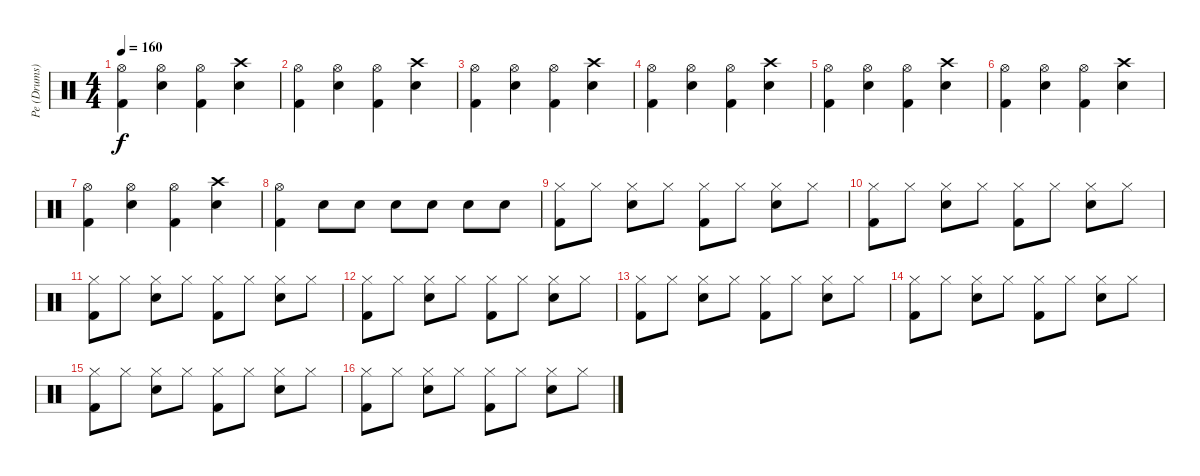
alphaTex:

\track ("Pe (Drums)" "Pe (Drums)") {instrument percussion}
\staff {score}
\articulation defaults
\ts (4 4)
\tempo 160
\clef neutral
\ks c
("Hi-Hat (open)" "Kick (hit) 2").4{dy f} ("Hi-Hat (open)" "Snare (hit) 2").4 ("Hi-Hat (open)" "Kick (hit) 2").4 ("Crash high (hit)" "Snare (hit) 2").4 |
("Hi-Hat (open)" "Kick (hit) 2").4 ("Hi-Hat (open)" "Snare (hit) 2").4 ("Hi-Hat (open)" "Kick (hit) 2").4 ("Crash high (hit)" "Snare (hit) 2").4 |
("Hi-Hat (open)" "Kick (hit) 2").4 ("Hi-Hat (open)" "Snare (hit) 2").4 ("Hi-Hat (open)" "Kick (hit) 2").4 ("Crash high (hit)" "Snare (hit) 2").4 |
("Hi-Hat (open)" "Kick (hit) 2").4 ("Hi-Hat (open)" "Snare (hit) 2").4 ("Hi-Hat (open)" "Kick (hit) 2").4 ("Crash high (hit)" "Snare (hit) 2").4 |
("Hi-Hat (open)" "Kick (hit) 2").4 ("Hi-Hat (open)" "Snare (hit) 2").4 ("Hi-Hat (open)" "Kick (hit) 2").4 ("Crash high (hit)" "Snare (hit) 2").4 |
("Hi-Hat (open)" "Kick (hit) 2").4 ("Hi-Hat (open)" "Snare (hit) 2").4 ("Hi-Hat (open)" "Kick (hit) 2").4 ("Crash high (hit)" "Snare (hit) 2").4 |
("Hi-Hat (open)" "Kick (hit) 2").4 ("Hi-Hat (open)" "Snare (hit) 2").4 ("Hi-Hat (open)" "Kick (hit) 2").4 ("Crash high (hit)" "Snare (hit) 2").4 |
("Hi-Hat (open)" "Kick (hit) 2").4 "Snare (hit) 2".8 "Snare (hit) 2".8 "Snare (hit) 2".8 "Snare (hit) 2".8 "Snare (hit) 2".8 "Snare (hit) 2".8 |
("Hi-Hat (closed)" "Kick (hit) 2").8 "Hi-Hat (closed)".8 ("Hi-Hat (closed)" "Snare (hit) 2").8 "Hi-Hat (closed)".8 ("Hi-Hat (closed)" "Kick (hit) 2").8 "Hi-Hat (closed)".8 ("Hi-Hat (closed)" "Snare (hit) 2").8 "Hi-Hat (closed)".8 |
("Hi-Hat (closed)" "Kick (hit) 2").8 "Hi-Hat (closed)".8 ("Hi-Hat (closed)" "Snare (hit) 2").8 "Hi-Hat (closed)".8 ("Hi-Hat (closed)" "Kick (hit) 2").8 "Hi-Hat (closed)".8 ("Hi-Hat (closed)" "Snare (hit) 2").8 "Hi-Hat (closed)".8 |
("Hi-Hat (closed)" "Kick (hit) 2").8 "Hi-Hat (closed)".8 ("Hi-Hat (closed)" "Snare (hit) 2").8 "Hi-Hat (closed)".8 ("Hi-Hat (closed)" "Kick (hit) 2").8 "Hi-Hat (closed)".8 ("Hi-Hat (closed)" "Snare (hit) 2").8 "Hi-Hat (closed)".8 |
("Hi-Hat (closed)" "Kick (hit) 2").8 "Hi-Hat (closed)".8 ("Hi-Hat (closed)" "Snare (hit) 2").8 "Hi-Hat (closed)".8 ("Hi-Hat (closed)" "Kick (hit) 2").8 "Hi-Hat (closed)".8 ("Hi-Hat (closed)" "Snare (hit) 2").8 "Hi-Hat (closed)".8 |
("Hi-Hat (closed)" "Kick (hit) 2").8 "Hi-Hat (closed)".8 ("Hi-Hat (closed)" "Snare (hit) 2").8 "Hi-Hat (closed)".8 ("Hi-Hat (closed)" "Kick (hit) 2").8 "Hi-Hat (closed)".8 ("Hi-Hat (closed)" "Snare (hit) 2").8 "Hi-Hat (closed)".8 |
("Hi-Hat (closed)" "Kick (hit) 2").8 "Hi-Hat (closed)".8 ("Hi-Hat (closed)" "Snare (hit) 2").8 "Hi-Hat (closed)".8 ("Hi-Hat (closed)" "Kick (hit) 2").8 "Hi-Hat (closed)".8 ("Hi-Hat (closed)" "Snare (hit) 2").8 "Hi-Hat (closed)".8 |
("Hi-Hat (closed)" "Kick (hit) 2").8 "Hi-Hat (closed)".8 ("Hi-Hat (closed)" "Snare (hit) 2").8 "Hi-Hat (closed)".8 ("Hi-Hat (closed)" "Kick (hit) 2").8 "Hi-Hat (closed)".8 ("Hi-Hat (closed)" "Snare (hit) 2").8 "Hi-Hat (closed)".8 |
("Hi-Hat (closed)" "Kick (hit) 2").8 "Hi-Hat (closed)".8 ("Hi-Hat (closed)" "Snare (hit) 2").8 "Hi-Hat (closed)".8 ("Hi-Hat (closed)" "Kick (hit) 2").8 "Hi-Hat (closed)".8 ("Hi-Hat (closed)" "Snare (hit) 2").8 "Hi-Hat (closed)".8
